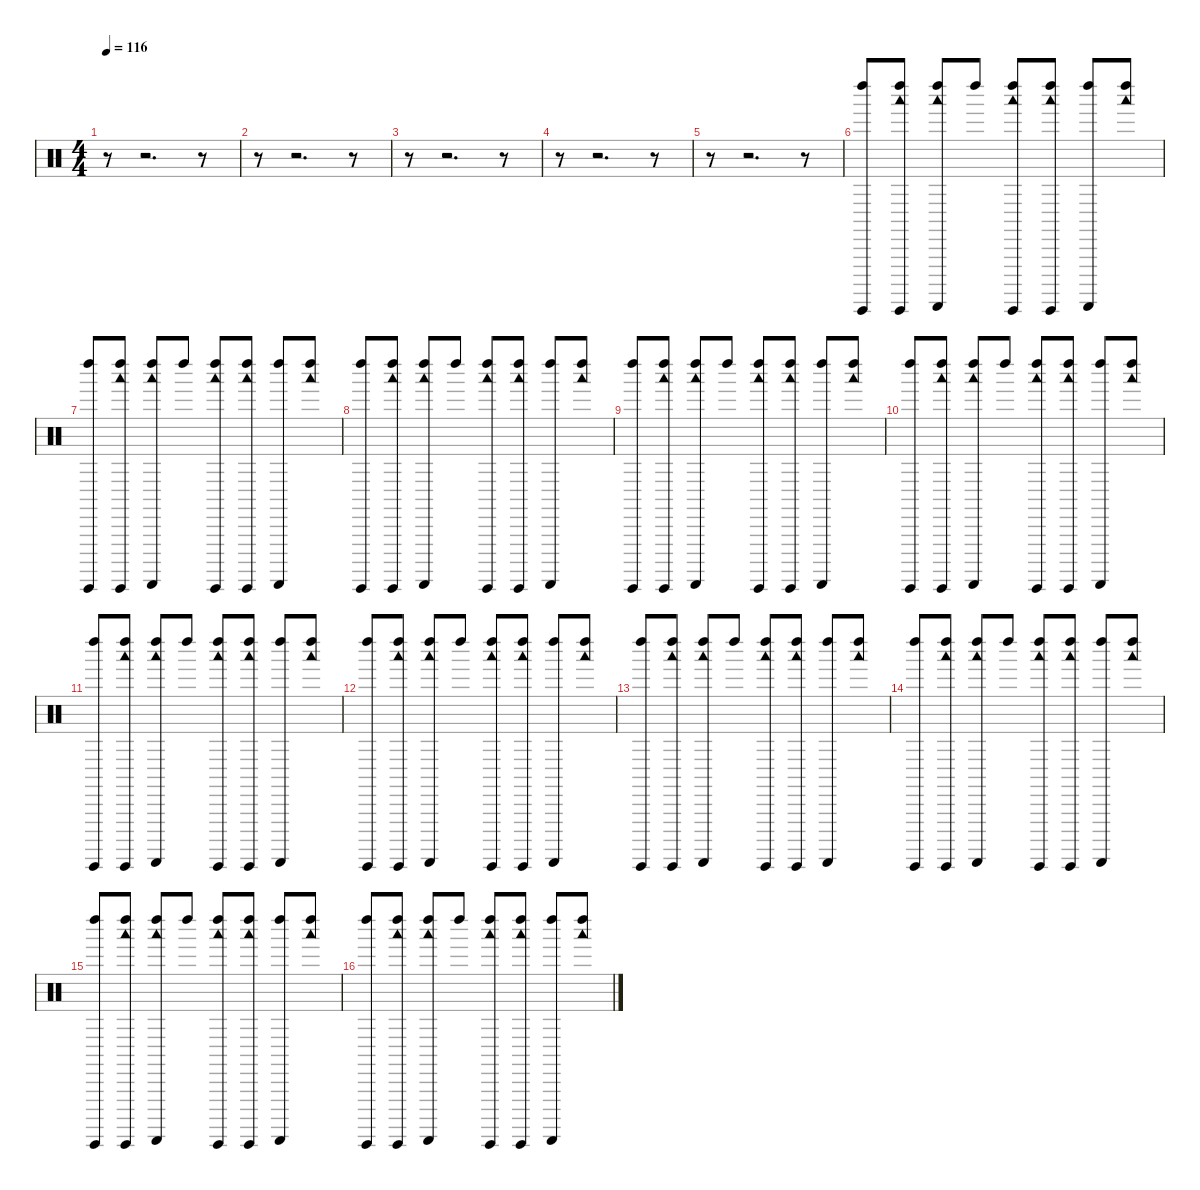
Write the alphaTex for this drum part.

\defaultSystemsLayout 4
\hideDynamics
\bracketExtendMode nobrackets
\singleTrackTrackNamePolicy hidden
\multiTrackTrackNamePolicy hidden
\firstSystemTrackNameMode fullname
\firstSystemTrackNameOrientation horizontal
\otherSystemsTrackNameOrientation horizontal
\track ("Percussions" "drm.") {instrument percussion}
\staff {score}
\articulation defaults
\ts (4 4)
\tempo 116
\clef neutral
\ks c
r.8{dy f beam Down} r.2{d beam Down} r.8{beam Down} |
r.8{beam Down} r.2{d beam Down} r.8{beam Down} |
r.8{beam Down} r.2{d beam Down} r.8{beam Down} |
r.8{beam Down} r.2{d beam Down} r.8{beam Down} |
r.8{beam Down} r.2{d beam Down} r.8{beam Down} |
("Guiro (hit)" "Left Maraca (hit)").8{beam Up} ("Guiro (hit)" "Left Maraca (hit)" "Woodblock low (hit)").8{beam Up} ("Guiro (scrap-return)" "Left Maraca (hit)" "Woodblock low (hit)").8{beam Up} "Left Maraca (hit)".8{beam Up} ("Guiro (hit)" "Left Maraca (hit)" "Woodblock low (hit)").8{beam Up} ("Guiro (hit)" "Left Maraca (hit)" "Woodblock low (hit)").8{beam Up} ("Guiro (scrap-return)" "Left Maraca (hit)").8{beam Up} ("Left Maraca (hit)" "Woodblock low (hit)").8{beam Up} |
("Guiro (hit)" "Left Maraca (hit)").8{beam Up} ("Guiro (hit)" "Left Maraca (hit)" "Woodblock low (hit)").8{beam Up} ("Guiro (scrap-return)" "Left Maraca (hit)" "Woodblock low (hit)").8{beam Up} "Left Maraca (hit)".8{beam Up} ("Guiro (hit)" "Left Maraca (hit)" "Woodblock low (hit)").8{beam Up} ("Guiro (hit)" "Left Maraca (hit)" "Woodblock low (hit)").8{beam Up} ("Guiro (scrap-return)" "Left Maraca (hit)").8{beam Up} ("Left Maraca (hit)" "Woodblock low (hit)").8{beam Up} |
("Guiro (hit)" "Left Maraca (hit)").8{beam Up} ("Guiro (hit)" "Left Maraca (hit)" "Woodblock low (hit)").8{beam Up} ("Guiro (scrap-return)" "Left Maraca (hit)" "Woodblock low (hit)").8{beam Up} "Left Maraca (hit)".8{beam Up} ("Guiro (hit)" "Left Maraca (hit)" "Woodblock low (hit)").8{beam Up} ("Guiro (hit)" "Left Maraca (hit)" "Woodblock low (hit)").8{beam Up} ("Guiro (scrap-return)" "Left Maraca (hit)").8{beam Up} ("Left Maraca (hit)" "Woodblock low (hit)").8{beam Up} |
("Guiro (hit)" "Left Maraca (hit)").8{beam Up} ("Guiro (hit)" "Left Maraca (hit)" "Woodblock low (hit)").8{beam Up} ("Guiro (scrap-return)" "Left Maraca (hit)" "Woodblock low (hit)").8{beam Up} "Left Maraca (hit)".8{beam Up} ("Guiro (hit)" "Left Maraca (hit)" "Woodblock low (hit)").8{beam Up} ("Guiro (hit)" "Left Maraca (hit)" "Woodblock low (hit)").8{beam Up} ("Guiro (scrap-return)" "Left Maraca (hit)").8{beam Up} ("Left Maraca (hit)" "Woodblock low (hit)").8{beam Up} |
("Guiro (hit)" "Left Maraca (hit)").8{beam Up} ("Guiro (hit)" "Left Maraca (hit)" "Woodblock low (hit)").8{beam Up} ("Guiro (scrap-return)" "Left Maraca (hit)" "Woodblock low (hit)").8{beam Up} "Left Maraca (hit)".8{beam Up} ("Guiro (hit)" "Left Maraca (hit)" "Woodblock low (hit)").8{beam Up} ("Guiro (hit)" "Left Maraca (hit)" "Woodblock low (hit)").8{beam Up} ("Guiro (scrap-return)" "Left Maraca (hit)").8{beam Up} ("Left Maraca (hit)" "Woodblock low (hit)").8{beam Up} |
("Guiro (hit)" "Left Maraca (hit)").8{beam Up} ("Guiro (hit)" "Left Maraca (hit)" "Woodblock low (hit)").8{beam Up} ("Guiro (scrap-return)" "Left Maraca (hit)" "Woodblock low (hit)").8{beam Up} "Left Maraca (hit)".8{beam Up} ("Guiro (hit)" "Left Maraca (hit)" "Woodblock low (hit)").8{beam Up} ("Guiro (hit)" "Left Maraca (hit)" "Woodblock low (hit)").8{beam Up} ("Guiro (scrap-return)" "Left Maraca (hit)").8{beam Up} ("Left Maraca (hit)" "Woodblock low (hit)").8{beam Up} |
("Guiro (hit)" "Left Maraca (hit)").8{beam Up} ("Guiro (hit)" "Left Maraca (hit)" "Woodblock low (hit)").8{beam Up} ("Guiro (scrap-return)" "Left Maraca (hit)" "Woodblock low (hit)").8{beam Up} "Left Maraca (hit)".8{beam Up} ("Guiro (hit)" "Left Maraca (hit)" "Woodblock low (hit)").8{beam Up} ("Guiro (hit)" "Left Maraca (hit)" "Woodblock low (hit)").8{beam Up} ("Guiro (scrap-return)" "Left Maraca (hit)").8{beam Up} ("Left Maraca (hit)" "Woodblock low (hit)").8{beam Up} |
("Guiro (hit)" "Left Maraca (hit)").8{beam Up} ("Guiro (hit)" "Left Maraca (hit)" "Woodblock low (hit)").8{beam Up} ("Guiro (scrap-return)" "Left Maraca (hit)" "Woodblock low (hit)").8{beam Up} "Left Maraca (hit)".8{beam Up} ("Guiro (hit)" "Left Maraca (hit)" "Woodblock low (hit)").8{beam Up} ("Guiro (hit)" "Left Maraca (hit)" "Woodblock low (hit)").8{beam Up} ("Guiro (scrap-return)" "Left Maraca (hit)").8{beam Up} ("Left Maraca (hit)" "Woodblock low (hit)").8{beam Up} |
("Guiro (hit)" "Left Maraca (hit)").8{beam Up} ("Guiro (hit)" "Left Maraca (hit)" "Woodblock low (hit)").8{beam Up} ("Guiro (scrap-return)" "Left Maraca (hit)" "Woodblock low (hit)").8{beam Up} "Left Maraca (hit)".8{beam Up} ("Guiro (hit)" "Left Maraca (hit)" "Woodblock low (hit)").8{beam Up} ("Guiro (hit)" "Left Maraca (hit)" "Woodblock low (hit)").8{beam Up} ("Guiro (scrap-return)" "Left Maraca (hit)").8{beam Up} ("Left Maraca (hit)" "Woodblock low (hit)").8{beam Up} |
("Guiro (hit)" "Left Maraca (hit)").8{beam Up} ("Guiro (hit)" "Left Maraca (hit)" "Woodblock low (hit)").8{beam Up} ("Guiro (scrap-return)" "Left Maraca (hit)" "Woodblock low (hit)").8{beam Up} "Left Maraca (hit)".8{beam Up} ("Guiro (hit)" "Left Maraca (hit)" "Woodblock low (hit)").8{beam Up} ("Guiro (hit)" "Left Maraca (hit)" "Woodblock low (hit)").8{beam Up} ("Guiro (scrap-return)" "Left Maraca (hit)").8{beam Up} ("Left Maraca (hit)" "Woodblock low (hit)").8{beam Up} |
("Guiro (hit)" "Left Maraca (hit)").8{beam Up} ("Guiro (hit)" "Left Maraca (hit)" "Woodblock low (hit)").8{beam Up} ("Guiro (scrap-return)" "Left Maraca (hit)" "Woodblock low (hit)").8{beam Up} "Left Maraca (hit)".8{beam Up} ("Guiro (hit)" "Left Maraca (hit)" "Woodblock low (hit)").8{beam Up} ("Guiro (hit)" "Left Maraca (hit)" "Woodblock low (hit)").8{beam Up} ("Guiro (scrap-return)" "Left Maraca (hit)").8{beam Up} ("Left Maraca (hit)" "Woodblock low (hit)").8{beam Up}
